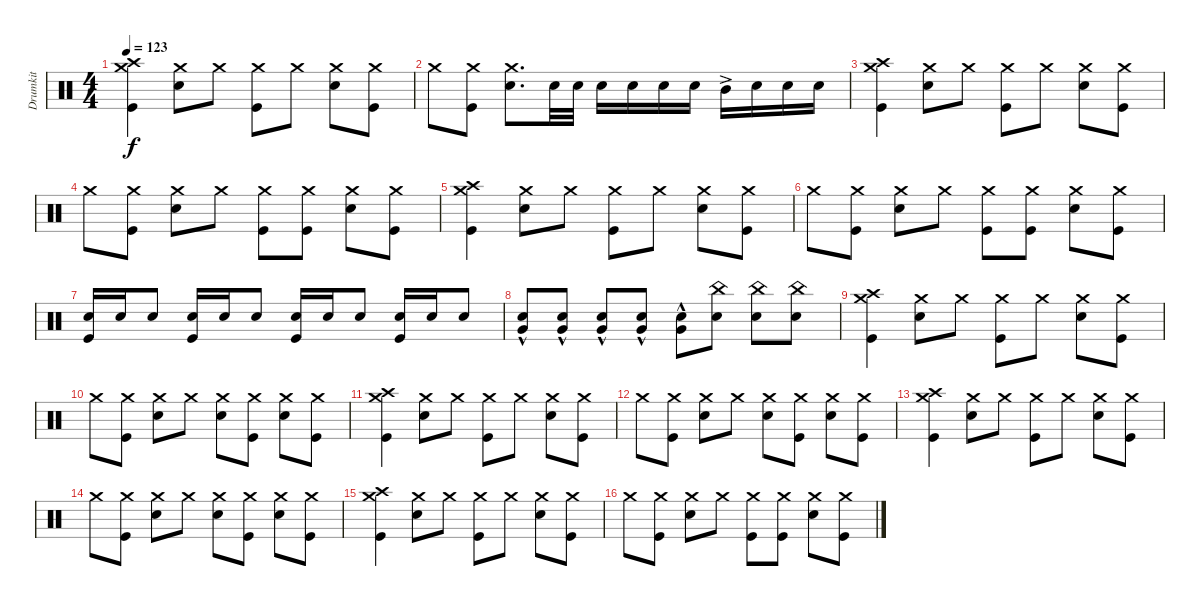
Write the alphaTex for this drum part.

\track ("Drumkit" "Drumkit") {instrument percussion}
\staff {score}
\articulation defaults
\ts (4 4)
\tempo 123
\clef neutral
\ks c
("Kick (hit)" "Crash medium (hit)" "Crash high (hit)").4{dy f} ("Snare (hit) 2" "Crash medium (hit)").8 "Crash medium (hit)".8 ("Kick (hit)" "Crash medium (hit)").8 "Crash medium (hit)".8 ("Snare (hit) 2" "Crash medium (hit)").8 ("Crash medium (hit)" "Kick (hit)").8 |
"Crash medium (hit)".8 ("Crash medium (hit)" "Kick (hit)").8 ("Snare (hit) 2" "Crash medium (hit)").8{d} "Snare (hit) 2".32 "Snare (hit) 2".32 "Snare (hit) 2".16 "Snare (hit) 2".16 "Snare (hit) 2".16 "Snare (hit) 2".16 "Mid Tom (hit)"{ac}.16 "Snare (hit) 2".16 "Snare (hit) 2".16 "Snare (hit) 2".16 |
("Kick (hit)" "Crash medium (hit)" "Crash high (hit)").4 ("Snare (hit) 2" "Crash medium (hit)").8 "Crash medium (hit)".8 ("Kick (hit)" "Crash medium (hit)").8 "Crash medium (hit)".8 ("Snare (hit) 2" "Crash medium (hit)").8 ("Crash medium (hit)" "Kick (hit)").8 |
"Crash medium (hit)".8 ("Crash medium (hit)" "Kick (hit)").8 ("Snare (hit) 2" "Crash medium (hit)").8 "Crash medium (hit)".8 ("Kick (hit)" "Crash medium (hit)").8 ("Crash medium (hit)" "Kick (hit)").8 ("Snare (hit) 2" "Crash medium (hit)").8 ("Crash medium (hit)" "Kick (hit)").8 |
("Kick (hit)" "Crash medium (hit)" "Crash high (hit)").4 ("Snare (hit) 2" "Crash medium (hit)").8 "Crash medium (hit)".8 ("Kick (hit)" "Crash medium (hit)").8 "Crash medium (hit)".8 ("Snare (hit) 2" "Crash medium (hit)").8 ("Crash medium (hit)" "Kick (hit)").8 |
"Crash medium (hit)".8 ("Crash medium (hit)" "Kick (hit)").8 ("Snare (hit) 2" "Crash medium (hit)").8 "Crash medium (hit)".8 ("Kick (hit)" "Crash medium (hit)").8 ("Crash medium (hit)" "Kick (hit)").8 ("Snare (hit) 2" "Crash medium (hit)").8 ("Crash medium (hit)" "Kick (hit)").8 |
("Kick (hit)" "Snare (hit) 2").16 "Snare (hit) 2".16 "Snare (hit) 2".8 ("Kick (hit)" "Snare (hit) 2").16 "Snare (hit) 2".16 "Snare (hit) 2".8 ("Kick (hit)" "Snare (hit) 2").16 "Snare (hit) 2".16 "Snare (hit) 2".8 ("Kick (hit)" "Snare (hit) 2").16 "Snare (hit) 2".16 "Snare (hit) 2".8 |
("Snare (hit) 2" "Very Low Tom (hit)"{hac}).8 ("Snare (hit) 2" "Very Low Tom (hit)"{hac}).8 ("Snare (hit) 2" "Very Low Tom (hit)"{hac}).8 ("Snare (hit) 2" "Very Low Tom (hit)"{hac}).8 ("Snare (hit) 2" "Very Low Tom (hit)"{hac}).8 ("Snare (hit) 2" "China (hit)").8 ("Snare (hit) 2" "China (hit)").8 ("Snare (hit) 2" "China (hit)").8 |
("Kick (hit)" "Crash medium (hit)" "Crash high (hit)").4 ("Snare (hit) 2" "Crash medium (hit)").8 "Crash medium (hit)".8 ("Kick (hit)" "Crash medium (hit)").8 "Crash medium (hit)".8 ("Snare (hit) 2" "Crash medium (hit)").8 ("Crash medium (hit)" "Kick (hit)").8 |
"Crash medium (hit)".8 ("Crash medium (hit)" "Kick (hit)").8 ("Snare (hit) 2" "Crash medium (hit)").8 "Crash medium (hit)".8 ("Crash medium (hit)" "Snare (hit) 2").8 ("Crash medium (hit)" "Kick (hit)").8 ("Snare (hit) 2" "Crash medium (hit)").8 ("Crash medium (hit)" "Kick (hit)").8 |
("Kick (hit)" "Crash medium (hit)" "Crash high (hit)").4 ("Snare (hit) 2" "Crash medium (hit)").8 "Crash medium (hit)".8 ("Kick (hit)" "Crash medium (hit)").8 "Crash medium (hit)".8 ("Snare (hit) 2" "Crash medium (hit)").8 ("Crash medium (hit)" "Kick (hit)").8 |
"Crash medium (hit)".8 ("Crash medium (hit)" "Kick (hit)").8 ("Snare (hit) 2" "Crash medium (hit)").8 "Crash medium (hit)".8 ("Crash medium (hit)" "Snare (hit) 2").8 ("Crash medium (hit)" "Kick (hit)").8 ("Snare (hit) 2" "Crash medium (hit)").8 ("Crash medium (hit)" "Kick (hit)").8 |
("Kick (hit)" "Crash medium (hit)" "Crash high (hit)").4 ("Snare (hit) 2" "Crash medium (hit)").8 "Crash medium (hit)".8 ("Kick (hit)" "Crash medium (hit)").8 "Crash medium (hit)".8 ("Snare (hit) 2" "Crash medium (hit)").8 ("Crash medium (hit)" "Kick (hit)").8 |
"Crash medium (hit)".8 ("Crash medium (hit)" "Kick (hit)").8 ("Snare (hit) 2" "Crash medium (hit)").8 "Crash medium (hit)".8 ("Crash medium (hit)" "Snare (hit) 2").8 ("Crash medium (hit)" "Kick (hit)").8 ("Snare (hit) 2" "Crash medium (hit)").8 ("Crash medium (hit)" "Kick (hit)").8 |
("Kick (hit)" "Crash medium (hit)" "Crash high (hit)").4 ("Snare (hit) 2" "Crash medium (hit)").8 "Crash medium (hit)".8 ("Kick (hit)" "Crash medium (hit)").8 "Crash medium (hit)".8 ("Snare (hit) 2" "Crash medium (hit)").8 ("Crash medium (hit)" "Kick (hit)").8 |
"Crash medium (hit)".8 ("Crash medium (hit)" "Kick (hit)").8 ("Snare (hit) 2" "Crash medium (hit)").8 "Crash medium (hit)".8 ("Kick (hit)" "Crash medium (hit)").8 ("Crash medium (hit)" "Kick (hit)").8 ("Snare (hit) 2" "Crash medium (hit)").8 ("Crash medium (hit)" "Kick (hit)").8
